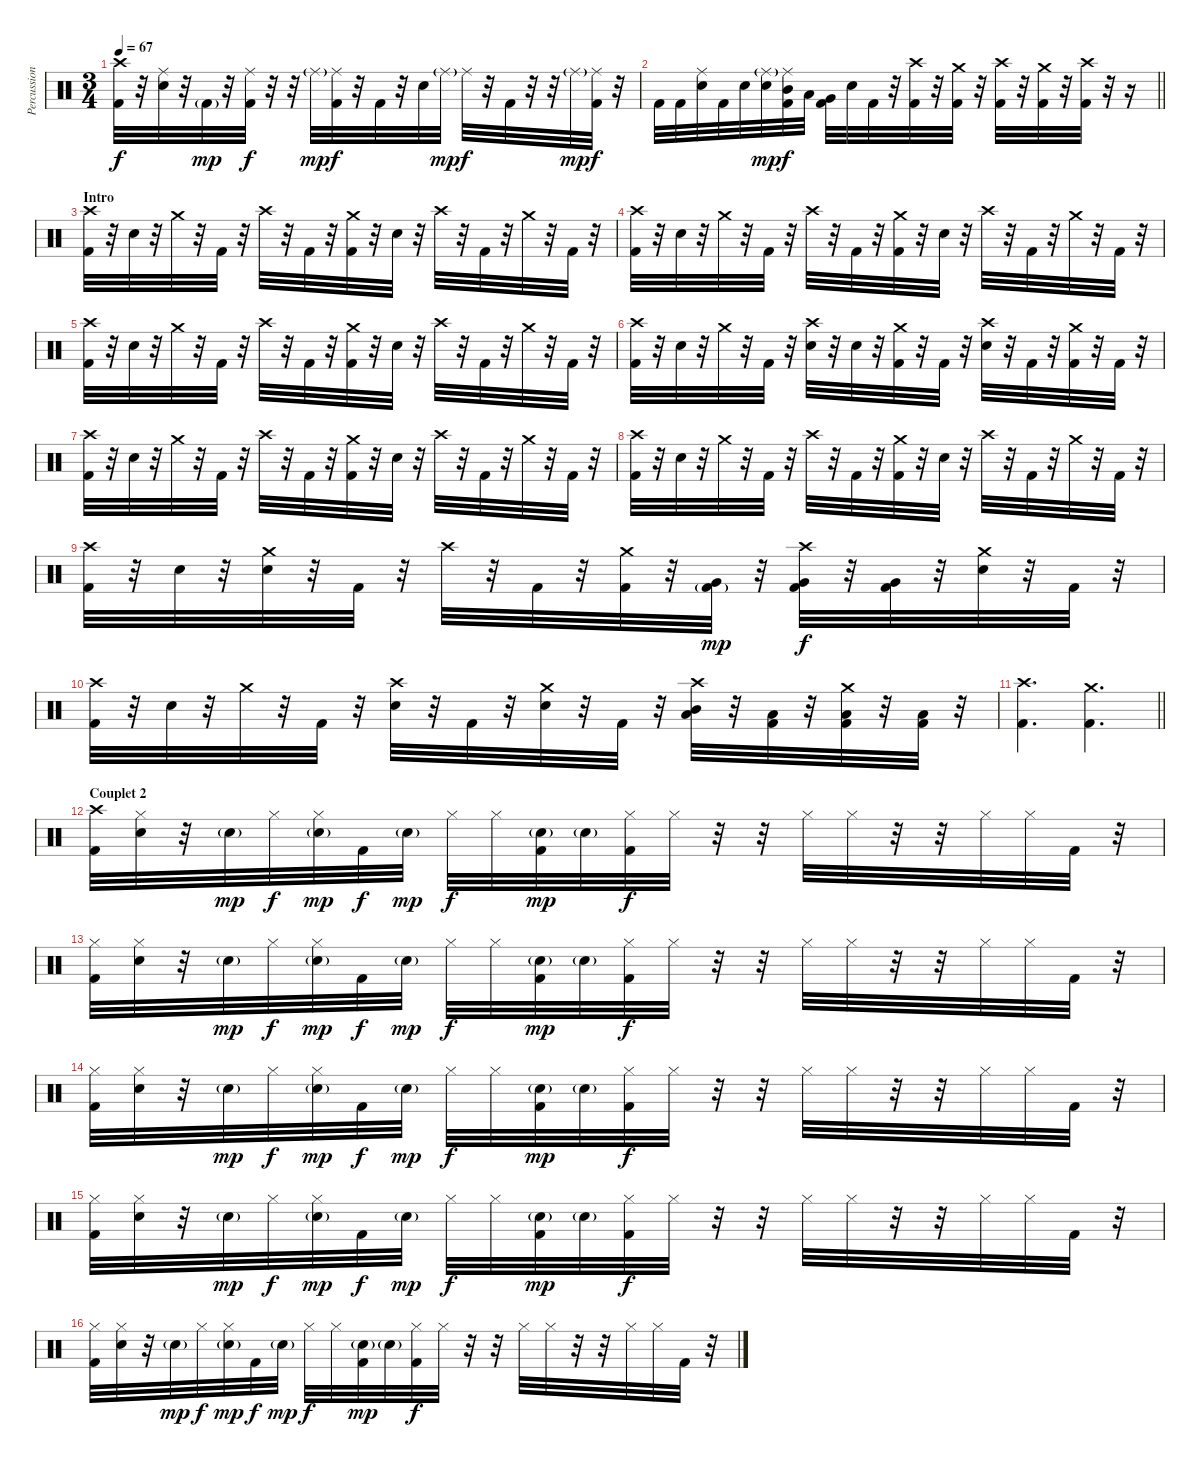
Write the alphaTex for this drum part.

\track ("Percussions" "Percussion") {instrument percussion}
\staff {score}
\articulation defaults
\ts (3 4)
\tempo 67
\clef neutral
\ks c
("Crash high (hit)" "Kick (hit) 2").32{dy f} r.32 ("Ride (middle)" "Electric Snare (hit)").32 r.32 "Kick (hit) 2"{g}.32{dy mp} r.32 ("Ride (middle)" "Kick (hit) 2").32{dy f} r.32 r.32 "Ride (middle)"{g}.32{dy mp} ("Ride (middle)" "Kick (hit) 2").32{dy f} r.32 "Kick (hit) 2".32 r.32 "Electric Snare (hit)".32 "Ride (middle)"{g}.32{dy mp} "Ride (middle)".32{dy f} r.32 "Kick (hit) 2".32 r.32 r.32 "Ride (middle)"{g}.32{dy mp} ("Ride (middle)" "Kick (hit) 2").32{dy f} r.32 |
\barLineRight lightlight "Kick (hit) 2".32 "Kick (hit) 2".32
("Ride (middle)" "Electric Snare (hit)").32 "Kick (hit) 2".32 "Electric Snare (hit)".32 ("Ride (middle)"{g} "Electric Snare (hit)").32{dy mp} ("Ride (middle)" "Mid Tom (hit)" "Kick (hit) 2").32{dy f} "Low Tom (hit)".32 ("Very Low Tom (hit)" "Kick (hit) 2").32 "Electric Snare (hit)".32 "Kick (hit) 2".32 r.32 ("Crash high (hit)" "Kick (hit) 2").32 r.32 ("Crash medium (hit)" "Kick (hit) 2").32 r.32 ("Crash high (hit)" "Kick (hit) 2").32 r.32 ("Crash medium (hit)" "Kick (hit) 2").32 r.32 ("Crash high (hit)" "Kick (hit) 2").32 r.32 r.16 |
\section ("" "Intro")
("Crash high (hit)" "Kick (hit) 2").32 r.32 "Electric Snare (hit)".32 r.32 "Crash medium (hit)".32 r.32 "Kick (hit) 2".32 r.32 "Crash high (hit)".32 r.32 "Kick (hit) 2".32 r.32 ("Crash medium (hit)" "Kick (hit) 2").32 r.32 "Electric Snare (hit)".32 r.32 "Crash high (hit)".32 r.32 "Kick (hit) 2".32 r.32 "Crash medium (hit)".32 r.32 "Kick (hit) 2".32 r.32 |
("Crash high (hit)" "Kick (hit) 2").32 r.32 "Electric Snare (hit)".32 r.32 "Crash medium (hit)".32 r.32 "Kick (hit) 2".32 r.32 "Crash high (hit)".32 r.32 "Kick (hit) 2".32 r.32 ("Crash medium (hit)" "Kick (hit) 2").32 r.32 "Electric Snare (hit)".32 r.32 "Crash high (hit)".32 r.32 "Kick (hit) 2".32 r.32 "Crash medium (hit)".32 r.32 "Kick (hit) 2".32 r.32 |
("Crash high (hit)" "Kick (hit) 2").32 r.32 "Electric Snare (hit)".32 r.32 "Crash medium (hit)".32 r.32 "Kick (hit) 2".32 r.32 "Crash high (hit)".32 r.32 "Kick (hit) 2".32 r.32 ("Crash medium (hit)" "Kick (hit) 2").32 r.32 "Electric Snare (hit)".32 r.32 "Crash high (hit)".32 r.32 "Kick (hit) 2".32 r.32 "Crash medium (hit)".32 r.32 "Kick (hit) 2".32 r.32 |
("Crash high (hit)" "Kick (hit) 2").32 r.32 "Electric Snare (hit)".32 r.32 "Crash medium (hit)".32 r.32 "Kick (hit) 2".32 r.32 ("Crash high (hit)" "Electric Snare (hit)").32 r.32 "Electric Snare (hit)".32 r.32 ("Crash medium (hit)" "Kick (hit) 2").32 r.32 "Kick (hit) 2".32 r.32 ("Crash high (hit)" "Electric Snare (hit)").32 r.32 "Kick (hit) 2".32 r.32 ("Crash medium (hit)" "Kick (hit) 2").32 r.32 "Kick (hit) 2".32 r.32 |
("Crash high (hit)" "Kick (hit) 2").32 r.32 "Electric Snare (hit)".32 r.32 "Crash medium (hit)".32 r.32 "Kick (hit) 2".32 r.32 "Crash high (hit)".32 r.32 "Kick (hit) 2".32 r.32 ("Crash medium (hit)" "Kick (hit) 2").32 r.32 "Electric Snare (hit)".32 r.32 "Crash high (hit)".32 r.32 "Kick (hit) 2".32 r.32 "Crash medium (hit)".32 r.32 "Kick (hit) 2".32 r.32 |
("Crash high (hit)" "Kick (hit) 2").32 r.32 "Electric Snare (hit)".32 r.32 "Crash medium (hit)".32 r.32 "Kick (hit) 2".32 r.32 "Crash high (hit)".32 r.32 "Kick (hit) 2".32 r.32 ("Crash medium (hit)" "Kick (hit) 2").32 r.32 "Electric Snare (hit)".32 r.32 "Crash high (hit)".32 r.32 "Kick (hit) 2".32 r.32 "Crash medium (hit)".32 r.32 "Kick (hit) 2".32 r.32 |
("Crash high (hit)" "Kick (hit) 2").32 r.32 "Electric Snare (hit)".32 r.32 ("Crash medium (hit)" "Electric Snare (hit)").32 r.32 "Kick (hit) 2".32 r.32 "Crash high (hit)".32 r.32 "Kick (hit) 2".32 r.32 ("Crash medium (hit)" "Kick (hit) 2").32 r.32 ("Very Low Tom (hit)" "Kick (hit) 2"{g}).32{dy mp} r.32 ("Crash high (hit)" "Very Low Tom (hit)" "Kick (hit) 2").32{dy f} r.32 ("Very Low Tom (hit)" "Kick (hit) 2").32 r.32 ("Crash medium (hit)" "Electric Snare (hit)").32 r.32 "Kick (hit) 2".32 r.32 |
("Crash high (hit)" "Kick (hit) 2").32 r.32 "Electric Snare (hit)".32 r.32 "Crash medium (hit)".32 r.32 "Kick (hit) 2".32 r.32 ("Crash high (hit)" "Electric Snare (hit)").32 r.32 "Kick (hit) 2".32 r.32 ("Crash medium (hit)" "Electric Snare (hit)").32 r.32 "Kick (hit) 2".32 r.32 ("Crash high (hit)" "Low Floor Tom (hit)" "Mid Tom (hit)").32 r.32 ("Low Floor Tom (hit)" "Kick (hit) 2").32 r.32 ("Crash medium (hit)" "Low Floor Tom (hit)" "Kick (hit) 2").32 r.32 ("Low Floor Tom (hit)" "Kick (hit) 2").32 r.32 |
\barLineRight lightlight
("Crash high (hit)" "Kick (hit) 2").4{d} ("Crash medium (hit)" "Kick (hit) 2").4{d} |
\section ("" "Couplet 2")
("Crash high (hit)" "Kick (hit) 2").32 ("Hi-Hat (closed)" "Electric Snare (hit)").32 r.32 "Electric Snare (hit)"{g}.32{dy mp} "Hi-Hat (closed)".32{dy f} ("Hi-Hat (closed)" "Electric Snare (hit)"{g}).32{dy mp} "Kick (hit) 2".32{dy f} "Electric Snare (hit)"{g}.32{dy mp} "Hi-Hat (closed)".32{dy f} "Hi-Hat (closed)".32 ("Electric Snare (hit)"{g} "Kick (hit) 2").32{dy mp} "Electric Snare (hit)"{g}.32 ("Hi-Hat (closed)" "Kick (hit) 2").32{dy f} "Hi-Hat (closed)".32 r.32 r.32 "Hi-Hat (closed)".32 "Hi-Hat (closed)".32 r.32 r.32 "Hi-Hat (closed)".32 "Hi-Hat (closed)".32 "Kick (hit) 2".32 r.32 |
("Hi-Hat (closed)" "Kick (hit) 2").32 ("Hi-Hat (closed)" "Electric Snare (hit)").32 r.32 "Electric Snare (hit)"{g}.32{dy mp} "Hi-Hat (closed)".32{dy f} ("Hi-Hat (closed)" "Electric Snare (hit)"{g}).32{dy mp} "Kick (hit) 2".32{dy f} "Electric Snare (hit)"{g}.32{dy mp} "Hi-Hat (closed)".32{dy f} "Hi-Hat (closed)".32 ("Electric Snare (hit)"{g} "Kick (hit) 2").32{dy mp} "Electric Snare (hit)"{g}.32 ("Hi-Hat (closed)" "Kick (hit) 2").32{dy f} "Hi-Hat (closed)".32 r.32 r.32 "Hi-Hat (closed)".32 "Hi-Hat (closed)".32 r.32 r.32 "Hi-Hat (closed)".32 "Hi-Hat (closed)".32 "Kick (hit) 2".32 r.32 |
("Hi-Hat (closed)" "Kick (hit) 2").32 ("Hi-Hat (closed)" "Electric Snare (hit)").32 r.32 "Electric Snare (hit)"{g}.32{dy mp} "Hi-Hat (closed)".32{dy f} ("Hi-Hat (closed)" "Electric Snare (hit)"{g}).32{dy mp} "Kick (hit) 2".32{dy f} "Electric Snare (hit)"{g}.32{dy mp} "Hi-Hat (closed)".32{dy f} "Hi-Hat (closed)".32 ("Electric Snare (hit)"{g} "Kick (hit) 2").32{dy mp} "Electric Snare (hit)"{g}.32 ("Hi-Hat (closed)" "Kick (hit) 2").32{dy f} "Hi-Hat (closed)".32 r.32 r.32 "Hi-Hat (closed)".32 "Hi-Hat (closed)".32 r.32 r.32 "Hi-Hat (closed)".32 "Hi-Hat (closed)".32 "Kick (hit) 2".32 r.32 |
("Hi-Hat (closed)" "Kick (hit) 2").32 ("Hi-Hat (closed)" "Electric Snare (hit)").32 r.32 "Electric Snare (hit)"{g}.32{dy mp} "Hi-Hat (closed)".32{dy f} ("Hi-Hat (closed)" "Electric Snare (hit)"{g}).32{dy mp} "Kick (hit) 2".32{dy f} "Electric Snare (hit)"{g}.32{dy mp} "Hi-Hat (closed)".32{dy f} "Hi-Hat (closed)".32 ("Electric Snare (hit)"{g} "Kick (hit) 2").32{dy mp} "Electric Snare (hit)"{g}.32 ("Hi-Hat (closed)" "Kick (hit) 2").32{dy f} "Hi-Hat (closed)".32 r.32 r.32 "Hi-Hat (closed)".32 "Hi-Hat (closed)".32 r.32 r.32 "Hi-Hat (closed)".32 "Hi-Hat (closed)".32 "Kick (hit) 2".32 r.32 |
("Hi-Hat (closed)" "Kick (hit) 2").32 ("Hi-Hat (closed)" "Electric Snare (hit)").32 r.32 "Electric Snare (hit)"{g}.32{dy mp} "Hi-Hat (closed)".32{dy f} ("Hi-Hat (closed)" "Electric Snare (hit)"{g}).32{dy mp} "Kick (hit) 2".32{dy f} "Electric Snare (hit)"{g}.32{dy mp} "Hi-Hat (closed)".32{dy f} "Hi-Hat (closed)".32 ("Electric Snare (hit)"{g} "Kick (hit) 2").32{dy mp} "Electric Snare (hit)"{g}.32 ("Hi-Hat (closed)" "Kick (hit) 2").32{dy f} "Hi-Hat (closed)".32 r.32 r.32 "Hi-Hat (closed)".32 "Hi-Hat (closed)".32 r.32 r.32 "Hi-Hat (closed)".32 "Hi-Hat (closed)".32 "Kick (hit) 2".32 r.32
